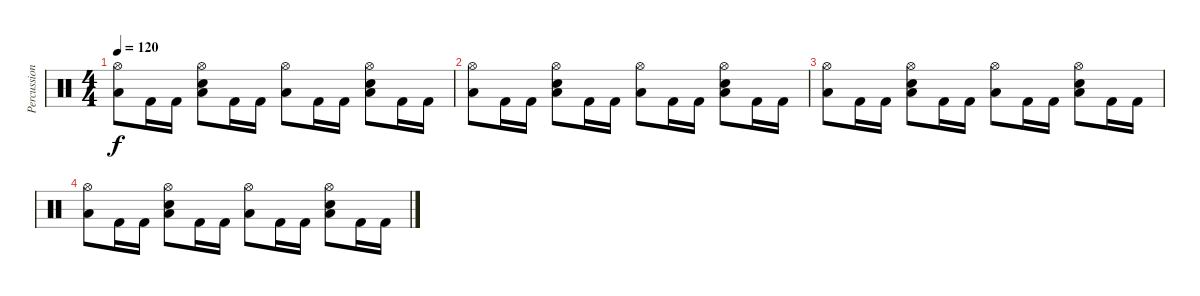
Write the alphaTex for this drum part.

\track ("Percussions" "Percussion") {instrument percussion}
\staff {score}
\articulation defaults
\ts (4 4)
\tempo 120
\clef neutral
\ks c
("Hi-Hat (open)" "Low Tom (hit)").8{dy f} "Kick (hit) 2".16 "Kick (hit) 2".16 ("Hi-Hat (open)" "Low Tom (hit)" "Snare (hit) 2").8 "Kick (hit) 2".16 "Kick (hit) 2".16 ("Hi-Hat (open)" "Low Tom (hit)").8 "Kick (hit) 2".16 "Kick (hit) 2".16 ("Hi-Hat (open)" "Low Tom (hit)" "Snare (hit) 2").8 "Kick (hit) 2".16 "Kick (hit) 2".16 |
("Hi-Hat (open)" "Low Tom (hit)").8 "Kick (hit) 2".16 "Kick (hit) 2".16 ("Hi-Hat (open)" "Low Tom (hit)" "Snare (hit) 2").8 "Kick (hit) 2".16 "Kick (hit) 2".16 ("Hi-Hat (open)" "Low Tom (hit)").8 "Kick (hit) 2".16 "Kick (hit) 2".16 ("Hi-Hat (open)" "Low Tom (hit)" "Snare (hit) 2").8 "Kick (hit) 2".16 "Kick (hit) 2".16 |
("Hi-Hat (open)" "Low Tom (hit)").8 "Kick (hit) 2".16 "Kick (hit) 2".16 ("Hi-Hat (open)" "Low Tom (hit)" "Snare (hit) 2").8 "Kick (hit) 2".16 "Kick (hit) 2".16 ("Hi-Hat (open)" "Low Tom (hit)").8 "Kick (hit) 2".16 "Kick (hit) 2".16 ("Hi-Hat (open)" "Low Tom (hit)" "Snare (hit) 2").8 "Kick (hit) 2".16 "Kick (hit) 2".16 |
("Hi-Hat (open)" "Low Tom (hit)").8 "Kick (hit) 2".16 "Kick (hit) 2".16 ("Hi-Hat (open)" "Low Tom (hit)" "Snare (hit) 2").8 "Kick (hit) 2".16 "Kick (hit) 2".16 ("Hi-Hat (open)" "Low Tom (hit)").8 "Kick (hit) 2".16 "Kick (hit) 2".16 ("Hi-Hat (open)" "Low Tom (hit)" "Snare (hit) 2").8 "Kick (hit) 2".16 "Kick (hit) 2".16
